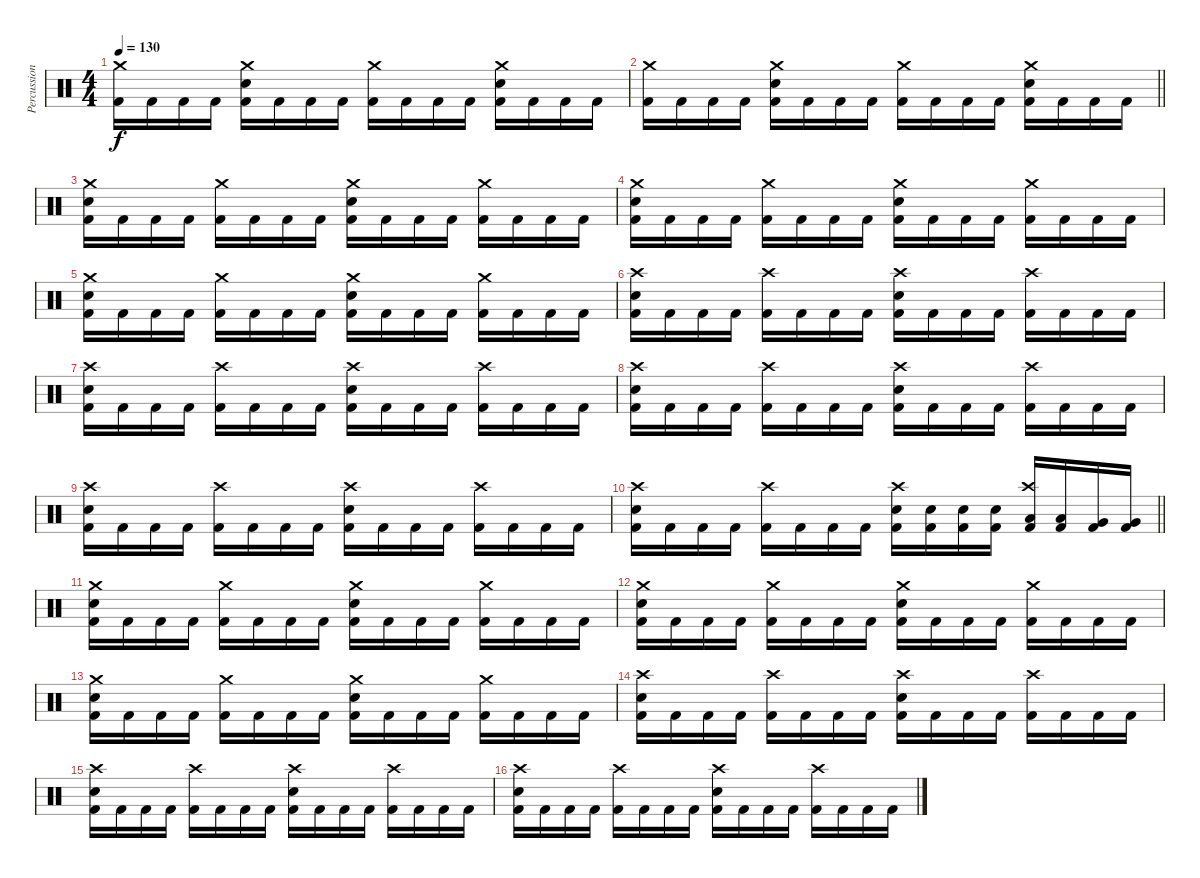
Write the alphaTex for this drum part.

\track ("Percussion" "Percussion") {instrument percussion}
\staff {score}
\articulation defaults
\ts (4 4)
\tempo 130
\clef neutral
\ks c
("Crash medium (hit)" "Kick (hit) 2").16{dy f} "Kick (hit) 2".16 "Kick (hit) 2".16 "Kick (hit) 2".16 ("Crash medium (hit)" "Snare (hit) 2" "Kick (hit) 2").16 "Kick (hit) 2".16 "Kick (hit) 2".16 "Kick (hit) 2".16 ("Crash medium (hit)" "Kick (hit) 2").16 "Kick (hit) 2".16 "Kick (hit) 2".16 "Kick (hit) 2".16 ("Crash medium (hit)" "Snare (hit) 2" "Kick (hit) 2").16 "Kick (hit) 2".16 "Kick (hit) 2".16 "Kick (hit) 2".16 |
\barLineRight lightlight
("Crash medium (hit)" "Kick (hit) 2").16 "Kick (hit) 2".16 "Kick (hit) 2".16 "Kick (hit) 2".16 ("Crash medium (hit)" "Snare (hit) 2" "Kick (hit) 2").16 "Kick (hit) 2".16 "Kick (hit) 2".16 "Kick (hit) 2".16 ("Crash medium (hit)" "Kick (hit) 2").16 "Kick (hit) 2".16 "Kick (hit) 2".16 "Kick (hit) 2".16 ("Crash medium (hit)" "Snare (hit) 2" "Kick (hit) 2").16 "Kick (hit) 2".16 "Kick (hit) 2".16 "Kick (hit) 2".16 |
\section ("" "")
("Crash medium (hit)" "Snare (hit) 2" "Kick (hit) 2").16 "Kick (hit) 2".16 "Kick (hit) 2".16 "Kick (hit) 2".16 ("Crash medium (hit)" "Kick (hit) 2").16 "Kick (hit) 2".16 "Kick (hit) 2".16 "Kick (hit) 2".16 ("Crash medium (hit)" "Snare (hit) 2" "Kick (hit) 2").16 "Kick (hit) 2".16 "Kick (hit) 2".16 "Kick (hit) 2".16 ("Crash medium (hit)" "Kick (hit) 2").16 "Kick (hit) 2".16 "Kick (hit) 2".16 "Kick (hit) 2".16 |
("Crash medium (hit)" "Snare (hit) 2" "Kick (hit) 2").16 "Kick (hit) 2".16 "Kick (hit) 2".16 "Kick (hit) 2".16 ("Crash medium (hit)" "Kick (hit) 2").16 "Kick (hit) 2".16 "Kick (hit) 2".16 "Kick (hit) 2".16 ("Crash medium (hit)" "Snare (hit) 2" "Kick (hit) 2").16 "Kick (hit) 2".16 "Kick (hit) 2".16 "Kick (hit) 2".16 ("Crash medium (hit)" "Kick (hit) 2").16 "Kick (hit) 2".16 "Kick (hit) 2".16 "Kick (hit) 2".16 |
("Crash medium (hit)" "Snare (hit) 2" "Kick (hit) 2").16 "Kick (hit) 2".16 "Kick (hit) 2".16 "Kick (hit) 2".16 ("Crash medium (hit)" "Kick (hit) 2").16 "Kick (hit) 2".16 "Kick (hit) 2".16 "Kick (hit) 2".16 ("Crash medium (hit)" "Snare (hit) 2" "Kick (hit) 2").16 "Kick (hit) 2".16 "Kick (hit) 2".16 "Kick (hit) 2".16 ("Crash medium (hit)" "Kick (hit) 2").16 "Kick (hit) 2".16 "Kick (hit) 2".16 "Kick (hit) 2".16 |
("Crash high (hit)" "Snare (hit) 2" "Kick (hit) 2").16 "Kick (hit) 2".16 "Kick (hit) 2".16 "Kick (hit) 2".16 ("Crash high (hit)" "Kick (hit) 2").16 "Kick (hit) 2".16 "Kick (hit) 2".16 "Kick (hit) 2".16 ("Crash high (hit)" "Snare (hit) 2" "Kick (hit) 2").16 "Kick (hit) 2".16 "Kick (hit) 2".16 "Kick (hit) 2".16 ("Crash high (hit)" "Kick (hit) 2").16 "Kick (hit) 2".16 "Kick (hit) 2".16 "Kick (hit) 2".16 |
("Crash high (hit)" "Snare (hit) 2" "Kick (hit) 2").16 "Kick (hit) 2".16 "Kick (hit) 2".16 "Kick (hit) 2".16 ("Crash high (hit)" "Kick (hit) 2").16 "Kick (hit) 2".16 "Kick (hit) 2".16 "Kick (hit) 2".16 ("Crash high (hit)" "Snare (hit) 2" "Kick (hit) 2").16 "Kick (hit) 2".16 "Kick (hit) 2".16 "Kick (hit) 2".16 ("Crash high (hit)" "Kick (hit) 2").16 "Kick (hit) 2".16 "Kick (hit) 2".16 "Kick (hit) 2".16 |
("Crash high (hit)" "Snare (hit) 2" "Kick (hit) 2").16 "Kick (hit) 2".16 "Kick (hit) 2".16 "Kick (hit) 2".16 ("Crash high (hit)" "Kick (hit) 2").16 "Kick (hit) 2".16 "Kick (hit) 2".16 "Kick (hit) 2".16 ("Crash high (hit)" "Snare (hit) 2" "Kick (hit) 2").16 "Kick (hit) 2".16 "Kick (hit) 2".16 "Kick (hit) 2".16 ("Crash high (hit)" "Kick (hit) 2").16 "Kick (hit) 2".16 "Kick (hit) 2".16 "Kick (hit) 2".16 |
("Crash high (hit)" "Snare (hit) 2" "Kick (hit) 2").16 "Kick (hit) 2".16 "Kick (hit) 2".16 "Kick (hit) 2".16 ("Crash high (hit)" "Kick (hit) 2").16 "Kick (hit) 2".16 "Kick (hit) 2".16 "Kick (hit) 2".16 ("Crash high (hit)" "Snare (hit) 2" "Kick (hit) 2").16 "Kick (hit) 2".16 "Kick (hit) 2".16 "Kick (hit) 2".16 ("Crash high (hit)" "Kick (hit) 2").16 "Kick (hit) 2".16 "Kick (hit) 2".16 "Kick (hit) 2".16 |
\barLineRight lightlight
("Crash high (hit)" "Snare (hit) 2" "Kick (hit) 2").16 "Kick (hit) 2".16 "Kick (hit) 2".16 "Kick (hit) 2".16 ("Crash high (hit)" "Kick (hit) 2").16 "Kick (hit) 2".16 "Kick (hit) 2".16 "Kick (hit) 2".16 ("Crash high (hit)" "Snare (hit) 2" "Kick (hit) 2").16 ("Snare (hit) 2" "Kick (hit) 2").16 ("Snare (hit) 2" "Kick (hit) 2").16 ("Snare (hit) 2" "Kick (hit) 2").16 ("Crash high (hit)" "Low Tom (hit)" "Kick (hit) 2").16 ("Low Tom (hit)" "Kick (hit) 2").16 ("Very Low Tom (hit)" "Kick (hit) 2").16 ("Very Low Tom (hit)" "Kick (hit) 2").16 |
\section ("" "")
("Crash medium (hit)" "Snare (hit) 2" "Kick (hit) 2").16 "Kick (hit) 2".16 "Kick (hit) 2".16 "Kick (hit) 2".16 ("Crash medium (hit)" "Kick (hit) 2").16 "Kick (hit) 2".16 "Kick (hit) 2".16 "Kick (hit) 2".16 ("Crash medium (hit)" "Snare (hit) 2" "Kick (hit) 2").16 "Kick (hit) 2".16 "Kick (hit) 2".16 "Kick (hit) 2".16 ("Crash medium (hit)" "Kick (hit) 2").16 "Kick (hit) 2".16 "Kick (hit) 2".16 "Kick (hit) 2".16 |
("Crash medium (hit)" "Snare (hit) 2" "Kick (hit) 2").16 "Kick (hit) 2".16 "Kick (hit) 2".16 "Kick (hit) 2".16 ("Crash medium (hit)" "Kick (hit) 2").16 "Kick (hit) 2".16 "Kick (hit) 2".16 "Kick (hit) 2".16 ("Crash medium (hit)" "Snare (hit) 2" "Kick (hit) 2").16 "Kick (hit) 2".16 "Kick (hit) 2".16 "Kick (hit) 2".16 ("Crash medium (hit)" "Kick (hit) 2").16 "Kick (hit) 2".16 "Kick (hit) 2".16 "Kick (hit) 2".16 |
("Crash medium (hit)" "Snare (hit) 2" "Kick (hit) 2").16 "Kick (hit) 2".16 "Kick (hit) 2".16 "Kick (hit) 2".16 ("Crash medium (hit)" "Kick (hit) 2").16 "Kick (hit) 2".16 "Kick (hit) 2".16 "Kick (hit) 2".16 ("Crash medium (hit)" "Snare (hit) 2" "Kick (hit) 2").16 "Kick (hit) 2".16 "Kick (hit) 2".16 "Kick (hit) 2".16 ("Crash medium (hit)" "Kick (hit) 2").16 "Kick (hit) 2".16 "Kick (hit) 2".16 "Kick (hit) 2".16 |
("Crash high (hit)" "Snare (hit) 2" "Kick (hit) 2").16 "Kick (hit) 2".16 "Kick (hit) 2".16 "Kick (hit) 2".16 ("Crash high (hit)" "Kick (hit) 2").16 "Kick (hit) 2".16 "Kick (hit) 2".16 "Kick (hit) 2".16 ("Crash high (hit)" "Snare (hit) 2" "Kick (hit) 2").16 "Kick (hit) 2".16 "Kick (hit) 2".16 "Kick (hit) 2".16 ("Crash high (hit)" "Kick (hit) 2").16 "Kick (hit) 2".16 "Kick (hit) 2".16 "Kick (hit) 2".16 |
("Crash high (hit)" "Snare (hit) 2" "Kick (hit) 2").16 "Kick (hit) 2".16 "Kick (hit) 2".16 "Kick (hit) 2".16 ("Crash high (hit)" "Kick (hit) 2").16 "Kick (hit) 2".16 "Kick (hit) 2".16 "Kick (hit) 2".16 ("Crash high (hit)" "Snare (hit) 2" "Kick (hit) 2").16 "Kick (hit) 2".16 "Kick (hit) 2".16 "Kick (hit) 2".16 ("Crash high (hit)" "Kick (hit) 2").16 "Kick (hit) 2".16 "Kick (hit) 2".16 "Kick (hit) 2".16 |
("Crash high (hit)" "Snare (hit) 2" "Kick (hit) 2").16 "Kick (hit) 2".16 "Kick (hit) 2".16 "Kick (hit) 2".16 ("Crash high (hit)" "Kick (hit) 2").16 "Kick (hit) 2".16 "Kick (hit) 2".16 "Kick (hit) 2".16 ("Crash high (hit)" "Snare (hit) 2" "Kick (hit) 2").16 "Kick (hit) 2".16 "Kick (hit) 2".16 "Kick (hit) 2".16 ("Crash high (hit)" "Kick (hit) 2").16 "Kick (hit) 2".16 "Kick (hit) 2".16 "Kick (hit) 2".16
